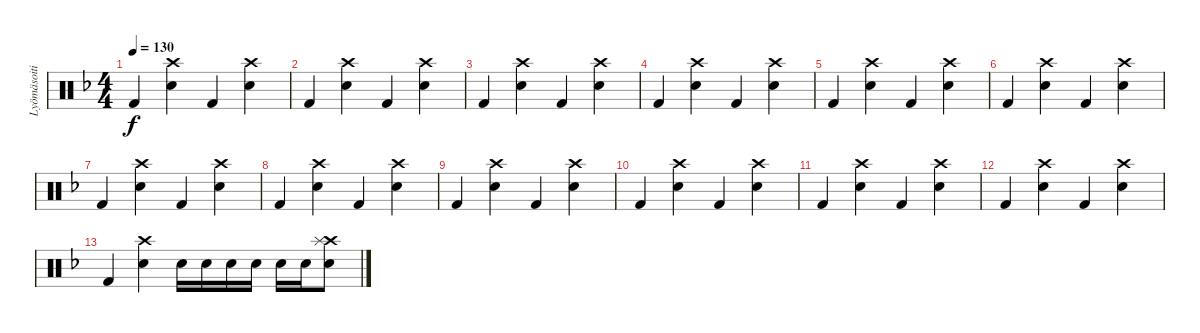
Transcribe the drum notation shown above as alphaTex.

\track ("Lyömäsoitin" "Lyömäsoiti") {instrument percussion}
\staff {score}
\articulation defaults
\ts (4 4)
\tempo 130
\clef neutral
\ks f "Kick (hit) 2".4{dy f}
("Electric Snare (hit)" "Crash high (hit)").4 "Kick (hit) 2".4 ("Electric Snare (hit)" "Crash high (hit)").4 |
"Kick (hit) 2".4 ("Electric Snare (hit)" "Crash high (hit)").4 "Kick (hit) 2".4 ("Electric Snare (hit)" "Crash high (hit)").4 |
"Kick (hit) 2".4 ("Electric Snare (hit)" "Crash high (hit)").4 "Kick (hit) 2".4 ("Electric Snare (hit)" "Crash high (hit)").4 |
"Kick (hit) 2".4 ("Electric Snare (hit)" "Crash high (hit)").4 "Kick (hit) 2".4 ("Electric Snare (hit)" "Crash high (hit)").4 |
"Kick (hit) 2".4 ("Electric Snare (hit)" "Crash high (hit)").4 "Kick (hit) 2".4 ("Electric Snare (hit)" "Crash high (hit)").4 |
"Kick (hit) 2".4 ("Electric Snare (hit)" "Crash high (hit)").4 "Kick (hit) 2".4 ("Electric Snare (hit)" "Crash high (hit)").4 |
"Kick (hit) 2".4 ("Electric Snare (hit)" "Crash high (hit)").4 "Kick (hit) 2".4 ("Electric Snare (hit)" "Crash high (hit)").4 |
"Kick (hit) 2".4 ("Electric Snare (hit)" "Crash high (hit)").4 "Kick (hit) 2".4 ("Electric Snare (hit)" "Crash high (hit)").4 |
"Kick (hit) 2".4 ("Electric Snare (hit)" "Crash high (hit)").4 "Kick (hit) 2".4 ("Electric Snare (hit)" "Crash high (hit)").4 |
"Kick (hit) 2".4 ("Electric Snare (hit)" "Crash high (hit)").4 "Kick (hit) 2".4 ("Electric Snare (hit)" "Crash high (hit)").4 |
"Kick (hit) 2".4 ("Electric Snare (hit)" "Crash high (hit)").4 "Kick (hit) 2".4 ("Electric Snare (hit)" "Crash high (hit)").4 |
"Kick (hit) 2".4 ("Electric Snare (hit)" "Crash high (hit)").4 "Kick (hit) 2".4 ("Electric Snare (hit)" "Crash high (hit)").4 |
"Kick (hit) 2".4 ("Electric Snare (hit)" "Crash high (hit)").4 "Electric Snare (hit)".16 "Electric Snare (hit)".16 "Electric Snare (hit)".16 "Electric Snare (hit)".16 "Electric Snare (hit)".16 "Electric Snare (hit)".16 ("Electric Snare (hit)" "Crash high (hit)" "Splash (hit)").8
